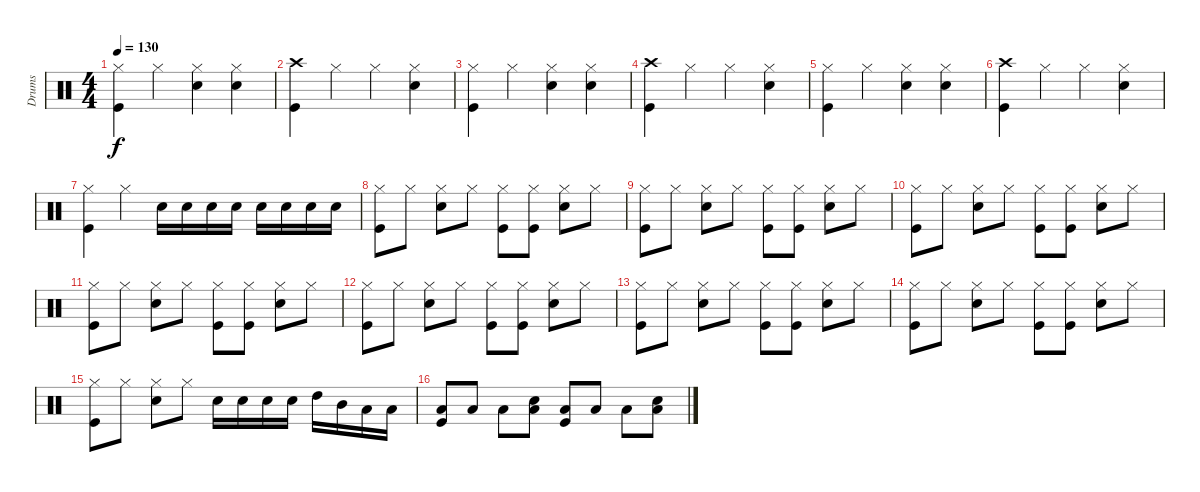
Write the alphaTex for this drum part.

\track ("Drums" "Drums") {instrument percussion}
\staff {score}
\articulation defaults
\ts (4 4)
\tempo 130
\clef neutral
\ks c
("Hi-Hat (closed)" "Kick (hit)").4{dy f} "Hi-Hat (closed)".4 ("Hi-Hat (closed)" "Snare (hit) 2").4 ("Hi-Hat (closed)" "Snare (hit) 2").4 |
("Crash high (hit)" "Kick (hit)").4 "Hi-Hat (closed)".4 "Hi-Hat (closed)".4 ("Hi-Hat (closed)" "Snare (hit) 2").4 |
("Hi-Hat (closed)" "Kick (hit)").4 "Hi-Hat (closed)".4 ("Hi-Hat (closed)" "Snare (hit) 2").4 ("Hi-Hat (closed)" "Snare (hit) 2").4 |
("Crash high (hit)" "Kick (hit)").4 "Hi-Hat (closed)".4 "Hi-Hat (closed)".4 ("Hi-Hat (closed)" "Snare (hit) 2").4 |
("Hi-Hat (closed)" "Kick (hit)").4 "Hi-Hat (closed)".4 ("Hi-Hat (closed)" "Snare (hit) 2").4 ("Hi-Hat (closed)" "Snare (hit) 2").4 |
("Crash high (hit)" "Kick (hit)").4 "Hi-Hat (closed)".4 "Hi-Hat (closed)".4 ("Hi-Hat (closed)" "Snare (hit) 2").4 |
("Hi-Hat (closed)" "Kick (hit)").4 "Hi-Hat (closed)".4 "Snare (hit) 2".16 "Snare (hit) 2".16 "Snare (hit) 2".16 "Snare (hit) 2".16 "Snare (hit) 2".16 "Snare (hit) 2".16 "Snare (hit) 2".16 "Snare (hit) 2".16 |
("Hi-Hat (closed)" "Kick (hit)").8 "Hi-Hat (closed)".8 ("Hi-Hat (closed)" "Snare (hit) 2").8 "Hi-Hat (closed)".8 ("Hi-Hat (closed)" "Kick (hit)").8 ("Hi-Hat (closed)" "Kick (hit)").8 ("Hi-Hat (closed)" "Snare (hit) 2").8 "Hi-Hat (closed)".8 |
("Hi-Hat (closed)" "Kick (hit)").8 "Hi-Hat (closed)".8 ("Hi-Hat (closed)" "Snare (hit) 2").8 "Hi-Hat (closed)".8 ("Hi-Hat (closed)" "Kick (hit)").8 ("Hi-Hat (closed)" "Kick (hit)").8 ("Hi-Hat (closed)" "Snare (hit) 2").8 "Hi-Hat (closed)".8 |
("Hi-Hat (closed)" "Kick (hit)").8 "Hi-Hat (closed)".8 ("Hi-Hat (closed)" "Snare (hit) 2").8 "Hi-Hat (closed)".8 ("Hi-Hat (closed)" "Kick (hit)").8 ("Hi-Hat (closed)" "Kick (hit)").8 ("Hi-Hat (closed)" "Snare (hit) 2").8 "Hi-Hat (closed)".8 |
("Hi-Hat (closed)" "Kick (hit)").8 "Hi-Hat (closed)".8 ("Hi-Hat (closed)" "Snare (hit) 2").8 "Hi-Hat (closed)".8 ("Hi-Hat (closed)" "Kick (hit)").8 ("Hi-Hat (closed)" "Kick (hit)").8 ("Hi-Hat (closed)" "Snare (hit) 2").8 "Hi-Hat (closed)".8 |
("Hi-Hat (closed)" "Kick (hit)").8 "Hi-Hat (closed)".8 ("Hi-Hat (closed)" "Snare (hit) 2").8 "Hi-Hat (closed)".8 ("Hi-Hat (closed)" "Kick (hit)").8 ("Hi-Hat (closed)" "Kick (hit)").8 ("Hi-Hat (closed)" "Snare (hit) 2").8 "Hi-Hat (closed)".8 |
("Hi-Hat (closed)" "Kick (hit)").8 "Hi-Hat (closed)".8 ("Hi-Hat (closed)" "Snare (hit) 2").8 "Hi-Hat (closed)".8 ("Hi-Hat (closed)" "Kick (hit)").8 ("Hi-Hat (closed)" "Kick (hit)").8 ("Hi-Hat (closed)" "Snare (hit) 2").8 "Hi-Hat (closed)".8 |
("Hi-Hat (closed)" "Kick (hit)").8 "Hi-Hat (closed)".8 ("Hi-Hat (closed)" "Snare (hit) 2").8 "Hi-Hat (closed)".8 ("Hi-Hat (closed)" "Kick (hit)").8 ("Hi-Hat (closed)" "Kick (hit)").8 ("Hi-Hat (closed)" "Snare (hit) 2").8 "Hi-Hat (closed)".8 |
("Hi-Hat (closed)" "Kick (hit)").8 "Hi-Hat (closed)".8 ("Hi-Hat (closed)" "Snare (hit) 2").8 "Hi-Hat (closed)".8 "Snare (hit) 2".16 "Snare (hit) 2".16 "Snare (hit) 2".16 "Snare (hit) 2".16 "High Tom (hit)".16 "Mid Tom (hit)".16 "Low Tom (hit)".16 "Low Tom (hit)".16 |
("Low Tom (hit)" "Kick (hit)").8 "Low Tom (hit)".8 "Low Tom (hit)".8 ("Low Tom (hit)" "Snare (hit) 2").8 ("Low Tom (hit)" "Kick (hit)").8 "Low Tom (hit)".8 "Low Tom (hit)".8 ("Low Tom (hit)" "Snare (hit) 2").8
